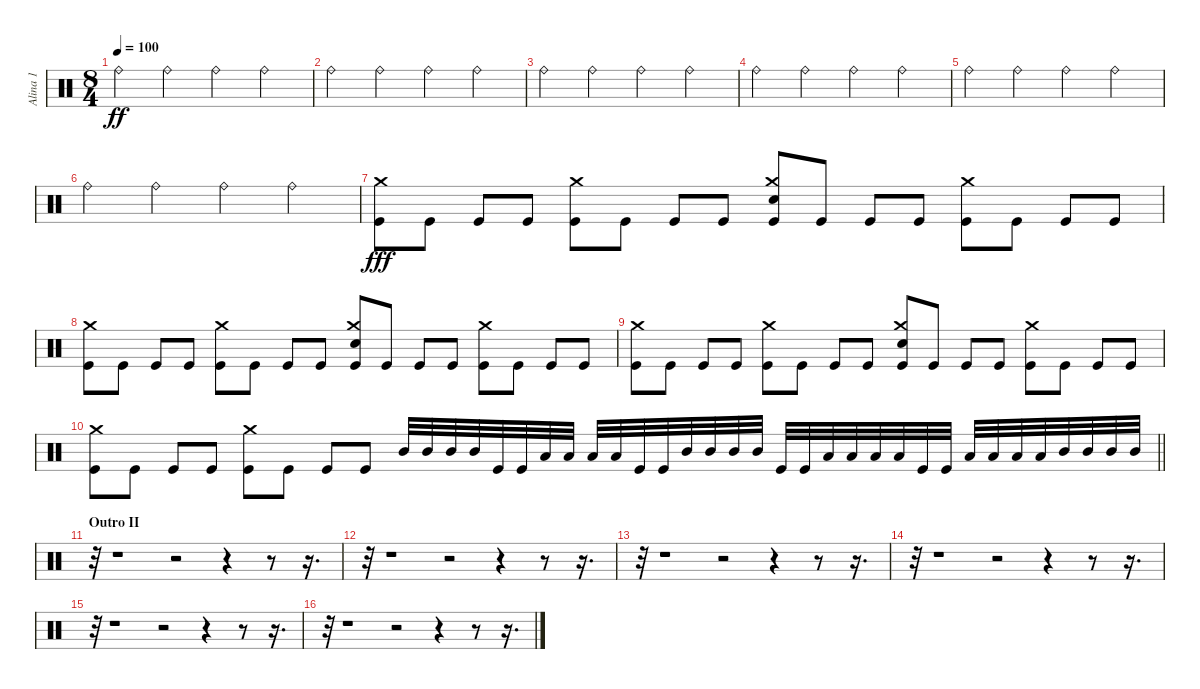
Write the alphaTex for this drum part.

\track ("Alina 1" "Alina 1") {mute instrument percussion}
\staff {score}
\articulation defaults
\ts (8 4)
\tempo 100
\clef neutral
\ks c "Ride (bell)".2{dy ff} "Ride (bell)".2 "Ride (bell)".2 "Ride (bell)".2
|
"Ride (bell)".2 "Ride (bell)".2 "Ride (bell)".2 "Ride (bell)".2 |
"Ride (bell)".2 "Ride (bell)".2 "Ride (bell)".2 "Ride (bell)".2 |
"Ride (bell)".2 "Ride (bell)".2 "Ride (bell)".2 "Ride (bell)".2 |
"Ride (bell)".2 "Ride (bell)".2 "Ride (bell)".2 "Ride (bell)".2 |
"Ride (bell)".2 "Ride (bell)".2 "Ride (bell)".2 "Ride (bell)".2 |
("Kick (hit)" "Crash medium (hit)").8{dy fff} "Kick (hit)".8 "Kick (hit)".8 "Kick (hit)".8 ("Kick (hit)" "Crash medium (hit)").8 "Kick (hit)".8 "Kick (hit)".8 "Kick (hit)".8 ("Kick (hit)" "Crash medium (hit)" "Snare (hit) 2").8 "Kick (hit)".8 "Kick (hit)".8 "Kick (hit)".8 ("Kick (hit)" "Crash medium (hit)").8 "Kick (hit)".8 "Kick (hit)".8 "Kick (hit)".8 |
("Kick (hit)" "Crash medium (hit)").8 "Kick (hit)".8 "Kick (hit)".8 "Kick (hit)".8 ("Kick (hit)" "Crash medium (hit)").8 "Kick (hit)".8 "Kick (hit)".8 "Kick (hit)".8 ("Kick (hit)" "Crash medium (hit)" "Snare (hit) 2").8 "Kick (hit)".8 "Kick (hit)".8 "Kick (hit)".8 ("Kick (hit)" "Crash medium (hit)").8 "Kick (hit)".8 "Kick (hit)".8 "Kick (hit)".8 |
("Kick (hit)" "Crash medium (hit)").8 "Kick (hit)".8 "Kick (hit)".8 "Kick (hit)".8 ("Kick (hit)" "Crash medium (hit)").8 "Kick (hit)".8 "Kick (hit)".8 "Kick (hit)".8 ("Kick (hit)" "Crash medium (hit)" "Snare (hit) 2").8 "Kick (hit)".8 "Kick (hit)".8 "Kick (hit)".8 ("Kick (hit)" "Crash medium (hit)").8 "Kick (hit)".8 "Kick (hit)".8 "Kick (hit)".8 |
\barLineRight lightlight
("Kick (hit)" "Crash medium (hit)").8 "Kick (hit)".8 "Kick (hit)".8 "Kick (hit)".8 ("Kick (hit)" "Crash medium (hit)").8 "Kick (hit)".8 "Kick (hit)".8 "Kick (hit)".8 "Mid Tom (hit)".32 "Mid Tom (hit)".32 "Mid Tom (hit)".32 "Mid Tom (hit)".32 "Kick (hit)".32 "Kick (hit)".32 "Low Tom (hit)".32 "Low Tom (hit)".32 "Low Tom (hit)".32 "Low Tom (hit)".32 "Kick (hit)".32 "Kick (hit)".32 "Mid Tom (hit)".32 "Mid Tom (hit)".32 "Mid Tom (hit)".32 "Mid Tom (hit)".32 "Kick (hit)".32 "Kick (hit)".32 "Low Tom (hit)".32 "Low Tom (hit)".32 "Low Tom (hit)".32 "Low Tom (hit)".32 "Kick (hit)".32 "Kick (hit)".32 "Low Tom (hit)".32 "Low Tom (hit)".32 "Low Tom (hit)".32 "Low Tom (hit)".32 "Mid Tom (hit)".32 "Mid Tom (hit)".32 "Mid Tom (hit)".32 "Mid Tom (hit)".32 |
\section ("" "Outro II")
r.32 r.1 r.2 r.4 r.8 r.16{d} |
r.32 r.1 r.2 r.4 r.8 r.16{d} |
r.32 r.1 r.2 r.4 r.8 r.16{d} |
r.32 r.1 r.2 r.4 r.8 r.16{d} |
r.32 r.1 r.2 r.4 r.8 r.16{d} |
r.32 r.1 r.2 r.4 r.8 r.16{d}
